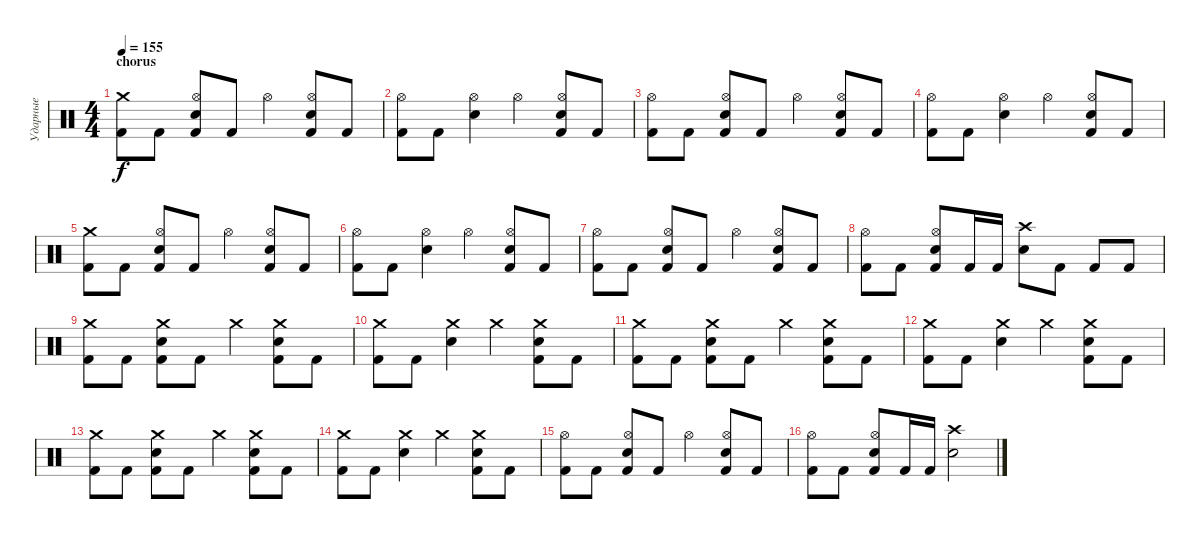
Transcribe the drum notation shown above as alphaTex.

\track ("Ударные" "Ударные") {instrument percussion}
\staff {score}
\articulation defaults
\ts (4 4)
\section ("" "chorus")
\tempo 155
\clef neutral
\ks c
("Crash medium (hit)" "Kick (hit) 2").8{dy f} "Kick (hit) 2".8 ("Hi-Hat (open)" "Electric Snare (hit)" "Kick (hit) 2").8 "Kick (hit) 2".8 "Hi-Hat (open)".4 ("Hi-Hat (open)" "Electric Snare (hit)" "Kick (hit) 2").8 "Kick (hit) 2".8 |
("Hi-Hat (open)" "Kick (hit) 2").8 "Kick (hit) 2".8 ("Hi-Hat (open)" "Electric Snare (hit)").4 "Hi-Hat (open)".4 ("Hi-Hat (open)" "Electric Snare (hit)" "Kick (hit) 2").8 "Kick (hit) 2".8 |
("Hi-Hat (open)" "Kick (hit) 2").8 "Kick (hit) 2".8 ("Hi-Hat (open)" "Electric Snare (hit)" "Kick (hit) 2").8 "Kick (hit) 2".8 "Hi-Hat (open)".4 ("Hi-Hat (open)" "Electric Snare (hit)" "Kick (hit) 2").8 "Kick (hit) 2".8 |
("Hi-Hat (open)" "Kick (hit) 2").8 "Kick (hit) 2".8 ("Hi-Hat (open)" "Electric Snare (hit)").4 "Hi-Hat (open)".4 ("Hi-Hat (open)" "Electric Snare (hit)" "Kick (hit) 2").8 "Kick (hit) 2".8 |
("Crash medium (hit)" "Kick (hit) 2").8 "Kick (hit) 2".8 ("Hi-Hat (open)" "Electric Snare (hit)" "Kick (hit) 2").8 "Kick (hit) 2".8 "Hi-Hat (open)".4 ("Hi-Hat (open)" "Electric Snare (hit)" "Kick (hit) 2").8 "Kick (hit) 2".8 |
("Hi-Hat (open)" "Kick (hit) 2").8 "Kick (hit) 2".8 ("Hi-Hat (open)" "Electric Snare (hit)").4 "Hi-Hat (open)".4 ("Hi-Hat (open)" "Electric Snare (hit)" "Kick (hit) 2").8 "Kick (hit) 2".8 |
("Hi-Hat (open)" "Kick (hit) 2").8 "Kick (hit) 2".8 ("Hi-Hat (open)" "Electric Snare (hit)" "Kick (hit) 2").8 "Kick (hit) 2".8 "Hi-Hat (open)".4 ("Hi-Hat (open)" "Electric Snare (hit)" "Kick (hit) 2").8 "Kick (hit) 2".8 |
("Hi-Hat (open)" "Kick (hit) 2").8 "Kick (hit) 2".8 ("Hi-Hat (open)" "Electric Snare (hit)" "Kick (hit) 2").8 "Kick (hit) 2".16 "Kick (hit) 2".16 ("Crash high (hit)" "Electric Snare (hit)").8 "Kick (hit) 2".8 "Kick (hit) 2".8 "Kick (hit) 2".8 |
("Crash medium (hit)" "Kick (hit) 2").8 "Kick (hit) 2".8 ("Crash medium (hit)" "Electric Snare (hit)" "Kick (hit) 2").8 "Kick (hit) 2".8 "Crash medium (hit)".4 ("Crash medium (hit)" "Electric Snare (hit)" "Kick (hit) 2").8 "Kick (hit) 2".8 |
("Crash medium (hit)" "Kick (hit) 2").8 "Kick (hit) 2".8 ("Crash medium (hit)" "Electric Snare (hit)").4 "Crash medium (hit)".4 ("Crash medium (hit)" "Electric Snare (hit)" "Kick (hit) 2").8 "Kick (hit) 2".8 |
("Crash medium (hit)" "Kick (hit) 2").8 "Kick (hit) 2".8 ("Crash medium (hit)" "Electric Snare (hit)" "Kick (hit) 2").8 "Kick (hit) 2".8 "Crash medium (hit)".4 ("Crash medium (hit)" "Electric Snare (hit)" "Kick (hit) 2").8 "Kick (hit) 2".8 |
("Crash medium (hit)" "Kick (hit) 2").8 "Kick (hit) 2".8 ("Crash medium (hit)" "Electric Snare (hit)").4 "Crash medium (hit)".4 ("Crash medium (hit)" "Electric Snare (hit)" "Kick (hit) 2").8 "Kick (hit) 2".8 |
("Crash medium (hit)" "Kick (hit) 2").8 "Kick (hit) 2".8 ("Crash medium (hit)" "Electric Snare (hit)" "Kick (hit) 2").8 "Kick (hit) 2".8 "Crash medium (hit)".4 ("Crash medium (hit)" "Electric Snare (hit)" "Kick (hit) 2").8 "Kick (hit) 2".8 |
("Crash medium (hit)" "Kick (hit) 2").8 "Kick (hit) 2".8 ("Crash medium (hit)" "Electric Snare (hit)").4 "Crash medium (hit)".4 ("Crash medium (hit)" "Electric Snare (hit)" "Kick (hit) 2").8 "Kick (hit) 2".8 |
("Hi-Hat (open)" "Kick (hit) 2").8 "Kick (hit) 2".8 ("Hi-Hat (open)" "Electric Snare (hit)" "Kick (hit) 2").8 "Kick (hit) 2".8 "Hi-Hat (open)".4 ("Hi-Hat (open)" "Electric Snare (hit)" "Kick (hit) 2").8 "Kick (hit) 2".8 |
("Hi-Hat (open)" "Kick (hit) 2").8 "Kick (hit) 2".8 ("Hi-Hat (open)" "Electric Snare (hit)" "Kick (hit) 2").8 "Kick (hit) 2".16 "Kick (hit) 2".16 ("Crash high (hit)" "Electric Snare (hit)").2
